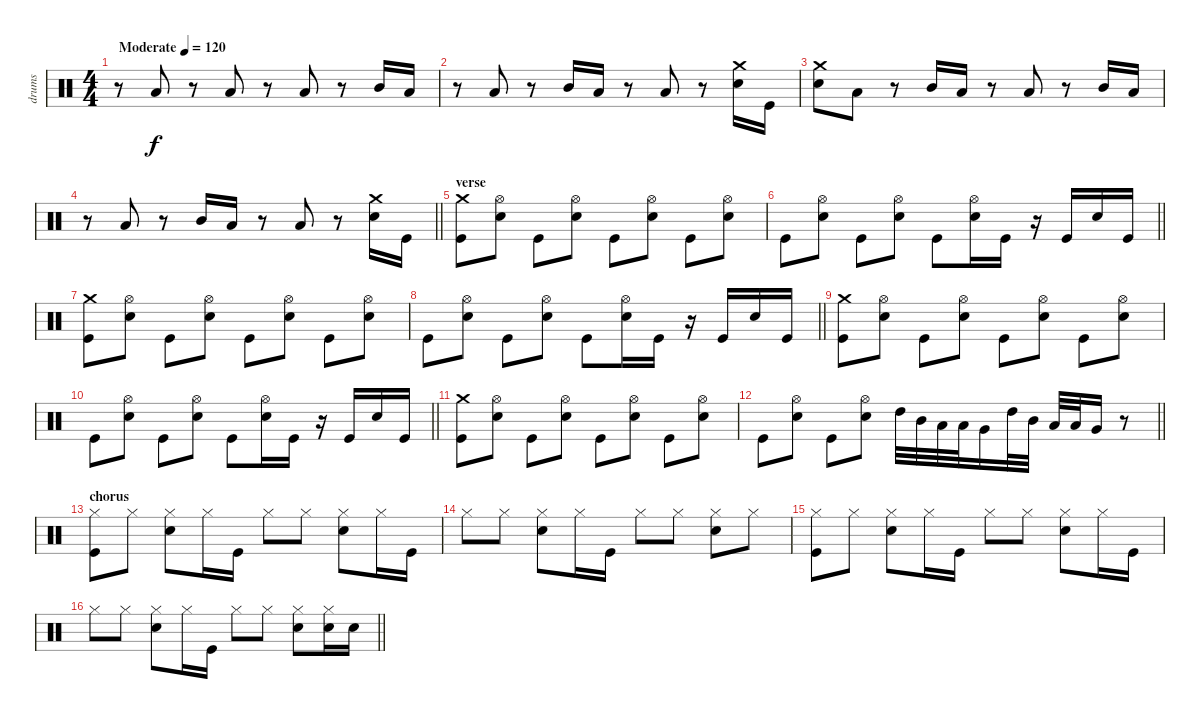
\track ("drums" "drums") {instrument percussion}
\staff {score}
\articulation defaults
\ts (4 4)
\tempo (120 "Moderate")
\tempo 70
\tempo (120 "Moderate")
\clef neutral
\ks c
r.8{dy f} "Low Tom (hit)".8 r.8 "Low Tom (hit)".8 r.8 "Low Tom (hit)".8 r.8 "Mid Tom (hit)".16 "Low Tom (hit)".16 |
r.8 "Low Tom (hit)".8 r.8 "Mid Tom (hit)".16 "Low Tom (hit)".16 r.8 "Low Tom (hit)".8 r.8 ("Crash medium (hit)" "Snare (hit) 2").16 "Kick (hit)".16 |
("Crash medium (hit)" "Snare (hit) 2").8 "Low Tom (hit)".8 r.8 "Mid Tom (hit)".16 "Low Tom (hit)".16 r.8 "Low Tom (hit)".8 r.8 "Mid Tom (hit)".16 "Low Tom (hit)".16 |
\barLineRight lightlight
r.8 "Low Tom (hit)".8 r.8 "Mid Tom (hit)".16 "Low Tom (hit)".16 r.8 "Low Tom (hit)".8 r.8 ("Crash medium (hit)" "Snare (hit) 2").16 "Kick (hit)".16 |
\section ("" "verse")
("Crash medium (hit)" "Kick (hit)").8 ("Hi-Hat (open)" "Snare (hit) 2").8 "Kick (hit)".8 ("Hi-Hat (open)" "Snare (hit) 2").8 "Kick (hit)".8 ("Hi-Hat (open)" "Snare (hit) 2").8 "Kick (hit)".8 ("Hi-Hat (open)" "Snare (hit) 2").8 |
\barLineRight lightlight "Kick (hit)".8
("Hi-Hat (open)" "Snare (hit) 2").8 "Kick (hit)".8 ("Hi-Hat (open)" "Snare (hit) 2").8 "Kick (hit)".8 ("Hi-Hat (open)" "Snare (hit) 2").16 "Kick (hit)".16 r.16 "Kick (hit)".16 "Snare (hit) 2".16 "Kick (hit)".16 |
("Crash medium (hit)" "Kick (hit)").8 ("Hi-Hat (open)" "Snare (hit) 2").8 "Kick (hit)".8 ("Hi-Hat (open)" "Snare (hit) 2").8 "Kick (hit)".8 ("Hi-Hat (open)" "Snare (hit) 2").8 "Kick (hit)".8 ("Hi-Hat (open)" "Snare (hit) 2").8 |
\barLineRight lightlight "Kick (hit)".8
("Hi-Hat (open)" "Snare (hit) 2").8 "Kick (hit)".8 ("Hi-Hat (open)" "Snare (hit) 2").8 "Kick (hit)".8 ("Hi-Hat (open)" "Snare (hit) 2").16 "Kick (hit)".16 r.16 "Kick (hit)".16 "Snare (hit) 2".16 "Kick (hit)".16 |
("Crash medium (hit)" "Kick (hit)").8 ("Hi-Hat (open)" "Snare (hit) 2").8 "Kick (hit)".8 ("Hi-Hat (open)" "Snare (hit) 2").8 "Kick (hit)".8 ("Hi-Hat (open)" "Snare (hit) 2").8 "Kick (hit)".8 ("Hi-Hat (open)" "Snare (hit) 2").8 |
\barLineRight lightlight "Kick (hit)".8
("Hi-Hat (open)" "Snare (hit) 2").8 "Kick (hit)".8 ("Hi-Hat (open)" "Snare (hit) 2").8 "Kick (hit)".8 ("Hi-Hat (open)" "Snare (hit) 2").16 "Kick (hit)".16 r.16 "Kick (hit)".16 "Snare (hit) 2".16 "Kick (hit)".16 |
("Crash medium (hit)" "Kick (hit)").8 ("Hi-Hat (open)" "Snare (hit) 2").8 "Kick (hit)".8 ("Hi-Hat (open)" "Snare (hit) 2").8 "Kick (hit)".8 ("Hi-Hat (open)" "Snare (hit) 2").8 "Kick (hit)".8 ("Hi-Hat (open)" "Snare (hit) 2").8 |
\barLineRight lightlight "Kick (hit)".8
("Hi-Hat (open)" "Snare (hit) 2").8 "Kick (hit)".8 ("Hi-Hat (open)" "Snare (hit) 2").8 "High Tom (hit)".32 "Mid Tom (hit)".32 "Low Tom (hit)".32 "Low Tom (hit)".32 "Very Low Tom (hit)".16 "High Tom (hit)".32 "Mid Tom (hit)".32 "Low Tom (hit)".32 "Low Tom (hit)".32 "Very Low Tom (hit)".16 r.8 |
\section ("" "chorus")
("Hi-Hat (closed)" "Kick (hit)").8 "Hi-Hat (closed)".8 ("Hi-Hat (closed)" "Snare (hit) 2").8 "Hi-Hat (closed)".16 "Kick (hit)".16 "Hi-Hat (closed)".8 "Hi-Hat (closed)".8 ("Hi-Hat (closed)" "Snare (hit) 2").8 "Hi-Hat (closed)".16 "Kick (hit)".16 |
"Hi-Hat (closed)".8 "Hi-Hat (closed)".8 ("Hi-Hat (closed)" "Snare (hit) 2").8 "Hi-Hat (closed)".16 "Kick (hit)".16 "Hi-Hat (closed)".8 "Hi-Hat (closed)".8 ("Hi-Hat (closed)" "Snare (hit) 2").8 "Hi-Hat (closed)".8 |
("Hi-Hat (closed)" "Kick (hit)").8 "Hi-Hat (closed)".8 ("Hi-Hat (closed)" "Snare (hit) 2").8 "Hi-Hat (closed)".16 "Kick (hit)".16 "Hi-Hat (closed)".8 "Hi-Hat (closed)".8 ("Hi-Hat (closed)" "Snare (hit) 2").8 "Hi-Hat (closed)".16 "Kick (hit)".16 |
\barLineRight lightlight "Hi-Hat (closed)".8 "Hi-Hat (closed)".8
("Hi-Hat (closed)" "Snare (hit) 2").8 "Hi-Hat (closed)".16 "Kick (hit)".16 "Hi-Hat (closed)".8 "Hi-Hat (closed)".8 ("Hi-Hat (closed)" "Snare (hit) 2").8 ("Hi-Hat (closed)" "Snare (hit) 2").16 "Snare (hit) 2".16
